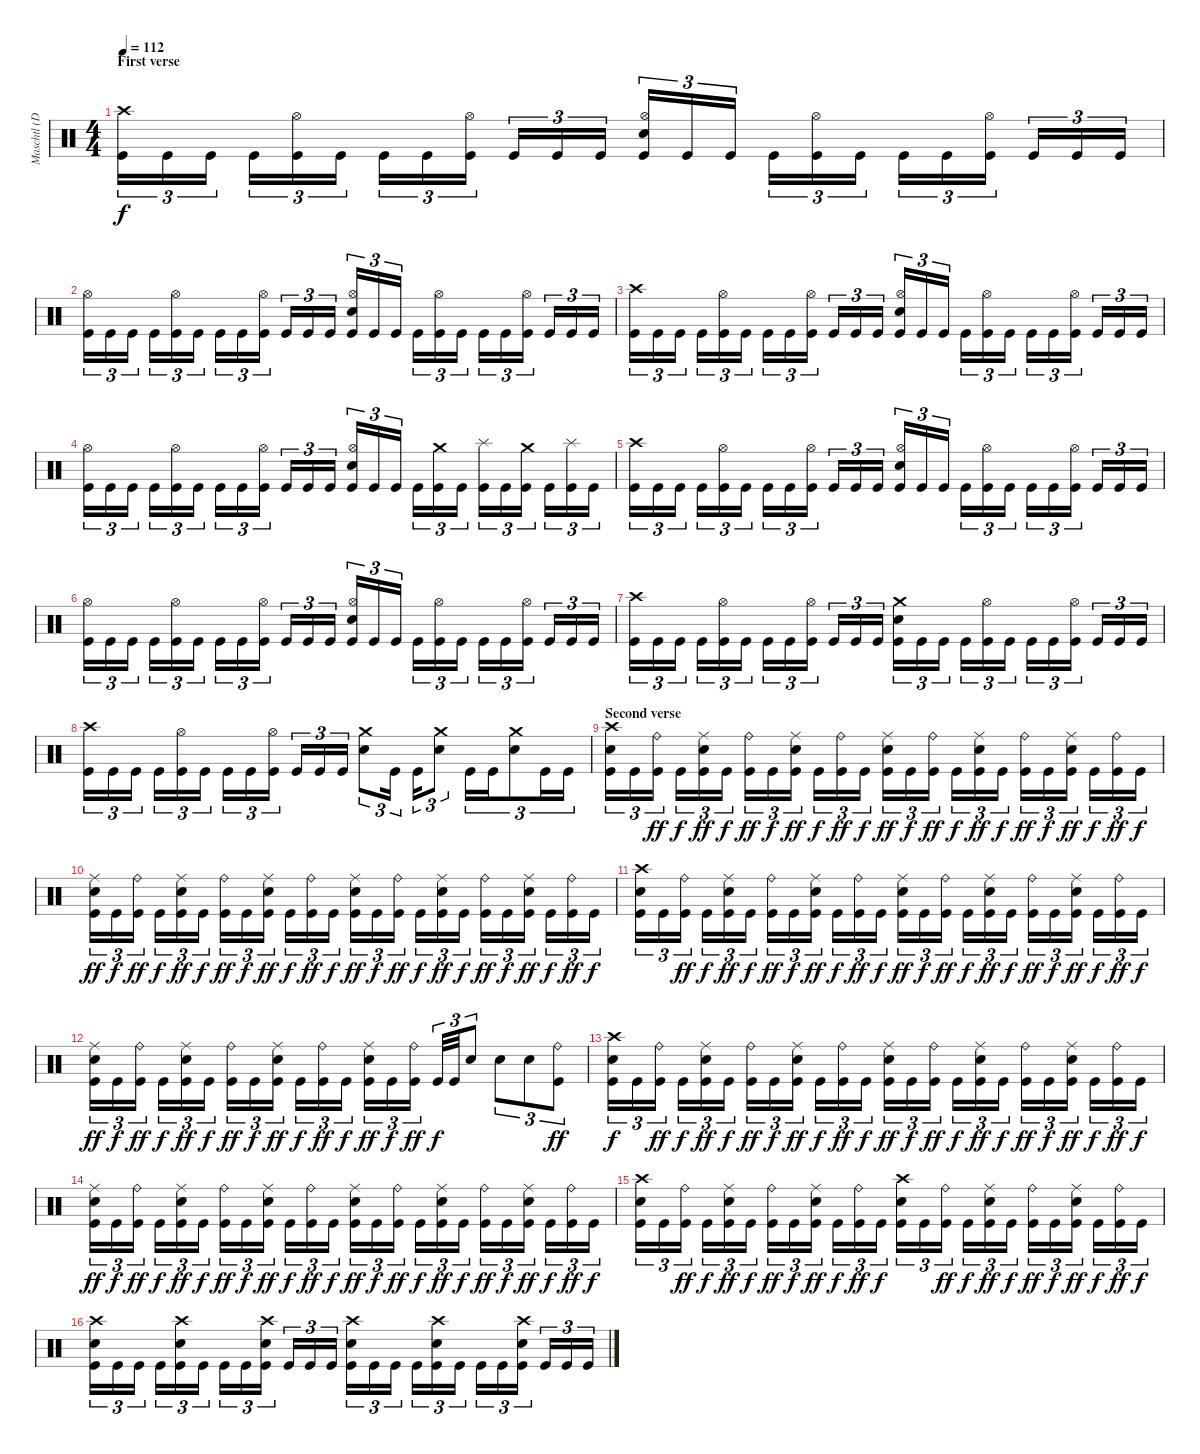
\track ("Maschtl (Drums)" "Maschtl (D") {instrument percussion}
\staff {score}
\articulation defaults
\ts (4 4)
\section ("" "First verse")
\tempo 112
\clef neutral
\ks c
("Crash high (hit)" "Kick (hit)").16{tu (3 2) dy f} "Kick (hit)".16{tu (3 2)} "Kick (hit)".16{tu (3 2)} "Kick (hit)".16{tu (3 2)} ("Hi-Hat (open)" "Kick (hit)").16{tu (3 2)} "Kick (hit)".16{tu (3 2)} "Kick (hit)".16{tu (3 2)} "Kick (hit)".16{tu (3 2)} ("Hi-Hat (open)" "Kick (hit)").16{tu (3 2)} "Kick (hit)".16{tu (3 2)} "Kick (hit)".16{tu (3 2)} "Kick (hit)".16{tu (3 2)} ("Hi-Hat (open)" "Electric Snare (hit)" "Kick (hit)").16{tu (3 2)} "Kick (hit)".16{tu (3 2)} "Kick (hit)".16{tu (3 2)} "Kick (hit)".16{tu (3 2)} ("Hi-Hat (open)" "Kick (hit)").16{tu (3 2)} "Kick (hit)".16{tu (3 2)} "Kick (hit)".16{tu (3 2)} "Kick (hit)".16{tu (3 2)} ("Hi-Hat (open)" "Kick (hit)").16{tu (3 2)} "Kick (hit)".16{tu (3 2)} "Kick (hit)".16{tu (3 2)} "Kick (hit)".16{tu (3 2)} |
("Hi-Hat (open)" "Kick (hit)").16{tu (3 2)} "Kick (hit)".16{tu (3 2)} "Kick (hit)".16{tu (3 2)} "Kick (hit)".16{tu (3 2)} ("Hi-Hat (open)" "Kick (hit)").16{tu (3 2)} "Kick (hit)".16{tu (3 2)} "Kick (hit)".16{tu (3 2)} "Kick (hit)".16{tu (3 2)} ("Hi-Hat (open)" "Kick (hit)").16{tu (3 2)} "Kick (hit)".16{tu (3 2)} "Kick (hit)".16{tu (3 2)} "Kick (hit)".16{tu (3 2)} ("Hi-Hat (open)" "Electric Snare (hit)" "Kick (hit)").16{tu (3 2)} "Kick (hit)".16{tu (3 2)} "Kick (hit)".16{tu (3 2)} "Kick (hit)".16{tu (3 2)} ("Hi-Hat (open)" "Kick (hit)").16{tu (3 2)} "Kick (hit)".16{tu (3 2)} "Kick (hit)".16{tu (3 2)} "Kick (hit)".16{tu (3 2)} ("Hi-Hat (open)" "Kick (hit)").16{tu (3 2)} "Kick (hit)".16{tu (3 2)} "Kick (hit)".16{tu (3 2)} "Kick (hit)".16{tu (3 2)} |
("Crash high (hit)" "Kick (hit)").16{tu (3 2)} "Kick (hit)".16{tu (3 2)} "Kick (hit)".16{tu (3 2)} "Kick (hit)".16{tu (3 2)} ("Hi-Hat (open)" "Kick (hit)").16{tu (3 2)} "Kick (hit)".16{tu (3 2)} "Kick (hit)".16{tu (3 2)} "Kick (hit)".16{tu (3 2)} ("Hi-Hat (open)" "Kick (hit)").16{tu (3 2)} "Kick (hit)".16{tu (3 2)} "Kick (hit)".16{tu (3 2)} "Kick (hit)".16{tu (3 2)} ("Hi-Hat (open)" "Electric Snare (hit)" "Kick (hit)").16{tu (3 2)} "Kick (hit)".16{tu (3 2)} "Kick (hit)".16{tu (3 2)} "Kick (hit)".16{tu (3 2)} ("Hi-Hat (open)" "Kick (hit)").16{tu (3 2)} "Kick (hit)".16{tu (3 2)} "Kick (hit)".16{tu (3 2)} "Kick (hit)".16{tu (3 2)} ("Hi-Hat (open)" "Kick (hit)").16{tu (3 2)} "Kick (hit)".16{tu (3 2)} "Kick (hit)".16{tu (3 2)} "Kick (hit)".16{tu (3 2)} |
("Hi-Hat (open)" "Kick (hit)").16{tu (3 2)} "Kick (hit)".16{tu (3 2)} "Kick (hit)".16{tu (3 2)} "Kick (hit)".16{tu (3 2)} ("Hi-Hat (open)" "Kick (hit)").16{tu (3 2)} "Kick (hit)".16{tu (3 2)} "Kick (hit)".16{tu (3 2)} "Kick (hit)".16{tu (3 2)} ("Hi-Hat (open)" "Kick (hit)").16{tu (3 2)} "Kick (hit)".16{tu (3 2)} "Kick (hit)".16{tu (3 2)} "Kick (hit)".16{tu (3 2)} ("Hi-Hat (open)" "Electric Snare (hit)" "Kick (hit)").16{tu (3 2)} "Kick (hit)".16{tu (3 2)} "Kick (hit)".16{tu (3 2)} "Kick (hit)".16{tu (3 2)} ("Crash medium (hit)" "Kick (hit)").16{tu (3 2)} "Kick (hit)".16{tu (3 2)} ("Splash (hit)" "Kick (hit)").16{tu (3 2)} "Kick (hit)".16{tu (3 2)} ("Crash medium (hit)" "Kick (hit)").16{tu (3 2)} "Kick (hit)".16{tu (3 2)} ("Splash (hit)" "Kick (hit)").16{tu (3 2)} "Kick (hit)".16{tu (3 2)} |
("Crash high (hit)" "Kick (hit)").16{tu (3 2)} "Kick (hit)".16{tu (3 2)} "Kick (hit)".16{tu (3 2)} "Kick (hit)".16{tu (3 2)} ("Hi-Hat (open)" "Kick (hit)").16{tu (3 2)} "Kick (hit)".16{tu (3 2)} "Kick (hit)".16{tu (3 2)} "Kick (hit)".16{tu (3 2)} ("Hi-Hat (open)" "Kick (hit)").16{tu (3 2)} "Kick (hit)".16{tu (3 2)} "Kick (hit)".16{tu (3 2)} "Kick (hit)".16{tu (3 2)} ("Hi-Hat (open)" "Electric Snare (hit)" "Kick (hit)").16{tu (3 2)} "Kick (hit)".16{tu (3 2)} "Kick (hit)".16{tu (3 2)} "Kick (hit)".16{tu (3 2)} ("Hi-Hat (open)" "Kick (hit)").16{tu (3 2)} "Kick (hit)".16{tu (3 2)} "Kick (hit)".16{tu (3 2)} "Kick (hit)".16{tu (3 2)} ("Hi-Hat (open)" "Kick (hit)").16{tu (3 2)} "Kick (hit)".16{tu (3 2)} "Kick (hit)".16{tu (3 2)} "Kick (hit)".16{tu (3 2)} |
("Hi-Hat (open)" "Kick (hit)").16{tu (3 2)} "Kick (hit)".16{tu (3 2)} "Kick (hit)".16{tu (3 2)} "Kick (hit)".16{tu (3 2)} ("Hi-Hat (open)" "Kick (hit)").16{tu (3 2)} "Kick (hit)".16{tu (3 2)} "Kick (hit)".16{tu (3 2)} "Kick (hit)".16{tu (3 2)} ("Hi-Hat (open)" "Kick (hit)").16{tu (3 2)} "Kick (hit)".16{tu (3 2)} "Kick (hit)".16{tu (3 2)} "Kick (hit)".16{tu (3 2)} ("Hi-Hat (open)" "Electric Snare (hit)" "Kick (hit)").16{tu (3 2)} "Kick (hit)".16{tu (3 2)} "Kick (hit)".16{tu (3 2)} "Kick (hit)".16{tu (3 2)} ("Hi-Hat (open)" "Kick (hit)").16{tu (3 2)} "Kick (hit)".16{tu (3 2)} "Kick (hit)".16{tu (3 2)} "Kick (hit)".16{tu (3 2)} ("Hi-Hat (open)" "Kick (hit)").16{tu (3 2)} "Kick (hit)".16{tu (3 2)} "Kick (hit)".16{tu (3 2)} "Kick (hit)".16{tu (3 2)} |
("Crash high (hit)" "Kick (hit)").16{tu (3 2)} "Kick (hit)".16{tu (3 2)} "Kick (hit)".16{tu (3 2)} "Kick (hit)".16{tu (3 2)} ("Hi-Hat (open)" "Kick (hit)").16{tu (3 2)} "Kick (hit)".16{tu (3 2)} "Kick (hit)".16{tu (3 2)} "Kick (hit)".16{tu (3 2)} ("Hi-Hat (open)" "Kick (hit)").16{tu (3 2)} "Kick (hit)".16{tu (3 2)} "Kick (hit)".16{tu (3 2)} "Kick (hit)".16{tu (3 2)} ("Crash medium (hit)" "Electric Snare (hit)" "Kick (hit)").16{tu (3 2)} "Kick (hit)".16{tu (3 2)} "Kick (hit)".16{tu (3 2)} "Kick (hit)".16{tu (3 2)} ("Hi-Hat (open)" "Kick (hit)").16{tu (3 2)} "Kick (hit)".16{tu (3 2)} "Kick (hit)".16{tu (3 2)} "Kick (hit)".16{tu (3 2)} ("Hi-Hat (open)" "Kick (hit)").16{tu (3 2)} "Kick (hit)".16{tu (3 2)} "Kick (hit)".16{tu (3 2)} "Kick (hit)".16{tu (3 2)} |
("Crash high (hit)" "Kick (hit)").16{tu (3 2)} "Kick (hit)".16{tu (3 2)} "Kick (hit)".16{tu (3 2)} "Kick (hit)".16{tu (3 2)} ("Hi-Hat (open)" "Kick (hit)").16{tu (3 2)} "Kick (hit)".16{tu (3 2)} "Kick (hit)".16{tu (3 2)} "Kick (hit)".16{tu (3 2)} ("Hi-Hat (open)" "Kick (hit)").16{tu (3 2)} "Kick (hit)".16{tu (3 2)} "Kick (hit)".16{tu (3 2)} "Kick (hit)".16{tu (3 2)} ("Crash medium (hit)" "Electric Snare (hit)").8{tu (3 2)} "Kick (hit)".16{tu (3 2)} "Kick (hit)".16{tu (3 2)} ("Crash medium (hit)" "Electric Snare (hit)").8{tu (3 2)} "Kick (hit)".16{tu (3 2)} "Kick (hit)".16{tu (3 2)} ("Crash medium (hit)" "Electric Snare (hit)").8{tu (3 2)} "Kick (hit)".16{tu (3 2)} "Kick (hit)".16{tu (3 2)} |
\section ("" "Second verse")
("Crash high (hit)" "Electric Snare (hit)" "Kick (hit)").16{tu (3 2)} "Kick (hit)".16{tu (3 2)} ("Ride (bell)" "Kick (hit)").16{tu (3 2) dy ff} "Kick (hit)".16{tu (3 2) dy f} ("Ride (middle)" "Electric Snare (hit)" "Kick (hit)").16{tu (3 2) dy ff} "Kick (hit)".16{tu (3 2) dy f} ("Ride (bell)" "Kick (hit)").16{tu (3 2) dy ff} "Kick (hit)".16{tu (3 2) dy f} ("Ride (middle)" "Electric Snare (hit)" "Kick (hit)").16{tu (3 2) dy ff} "Kick (hit)".16{tu (3 2) dy f} ("Ride (bell)" "Kick (hit)").16{tu (3 2) dy ff} "Kick (hit)".16{tu (3 2) dy f} ("Ride (middle)" "Electric Snare (hit)" "Kick (hit)").16{tu (3 2) dy ff} "Kick (hit)".16{tu (3 2) dy f} ("Ride (bell)" "Kick (hit)").16{tu (3 2) dy ff} "Kick (hit)".16{tu (3 2) dy f} ("Ride (middle)" "Electric Snare (hit)" "Kick (hit)").16{tu (3 2) dy ff} "Kick (hit)".16{tu (3 2) dy f} ("Ride (bell)" "Kick (hit)").16{tu (3 2) dy ff} "Kick (hit)".16{tu (3 2) dy f} ("Ride (middle)" "Electric Snare (hit)" "Kick (hit)").16{tu (3 2) dy ff} "Kick (hit)".16{tu (3 2) dy f} ("Ride (bell)" "Kick (hit)").16{tu (3 2) dy ff} "Kick (hit)".16{tu (3 2) dy f} |
("Ride (middle)" "Electric Snare (hit)" "Kick (hit)").16{tu (3 2) dy ff} "Kick (hit)".16{tu (3 2) dy f} ("Ride (bell)" "Kick (hit)").16{tu (3 2) dy ff} "Kick (hit)".16{tu (3 2) dy f} ("Ride (middle)" "Electric Snare (hit)" "Kick (hit)").16{tu (3 2) dy ff} "Kick (hit)".16{tu (3 2) dy f} ("Ride (bell)" "Kick (hit)").16{tu (3 2) dy ff} "Kick (hit)".16{tu (3 2) dy f} ("Ride (middle)" "Electric Snare (hit)" "Kick (hit)").16{tu (3 2) dy ff} "Kick (hit)".16{tu (3 2) dy f} ("Ride (bell)" "Kick (hit)").16{tu (3 2) dy ff} "Kick (hit)".16{tu (3 2) dy f} ("Ride (middle)" "Electric Snare (hit)" "Kick (hit)").16{tu (3 2) dy ff} "Kick (hit)".16{tu (3 2) dy f} ("Ride (bell)" "Kick (hit)").16{tu (3 2) dy ff} "Kick (hit)".16{tu (3 2) dy f} ("Ride (middle)" "Electric Snare (hit)" "Kick (hit)").16{tu (3 2) dy ff} "Kick (hit)".16{tu (3 2) dy f} ("Ride (bell)" "Kick (hit)").16{tu (3 2) dy ff} "Kick (hit)".16{tu (3 2) dy f} ("Ride (middle)" "Electric Snare (hit)" "Kick (hit)").16{tu (3 2) dy ff} "Kick (hit)".16{tu (3 2) dy f} ("Ride (bell)" "Kick (hit)").16{tu (3 2) dy ff} "Kick (hit)".16{tu (3 2) dy f} |
("Crash high (hit)" "Electric Snare (hit)" "Kick (hit)").16{tu (3 2)} "Kick (hit)".16{tu (3 2)} ("Ride (bell)" "Kick (hit)").16{tu (3 2) dy ff} "Kick (hit)".16{tu (3 2) dy f} ("Ride (middle)" "Electric Snare (hit)" "Kick (hit)").16{tu (3 2) dy ff} "Kick (hit)".16{tu (3 2) dy f} ("Ride (bell)" "Kick (hit)").16{tu (3 2) dy ff} "Kick (hit)".16{tu (3 2) dy f} ("Ride (middle)" "Electric Snare (hit)" "Kick (hit)").16{tu (3 2) dy ff} "Kick (hit)".16{tu (3 2) dy f} ("Ride (bell)" "Kick (hit)").16{tu (3 2) dy ff} "Kick (hit)".16{tu (3 2) dy f} ("Ride (middle)" "Electric Snare (hit)" "Kick (hit)").16{tu (3 2) dy ff} "Kick (hit)".16{tu (3 2) dy f} ("Ride (bell)" "Kick (hit)").16{tu (3 2) dy ff} "Kick (hit)".16{tu (3 2) dy f} ("Ride (middle)" "Electric Snare (hit)" "Kick (hit)").16{tu (3 2) dy ff} "Kick (hit)".16{tu (3 2) dy f} ("Ride (bell)" "Kick (hit)").16{tu (3 2) dy ff} "Kick (hit)".16{tu (3 2) dy f} ("Ride (middle)" "Electric Snare (hit)" "Kick (hit)").16{tu (3 2) dy ff} "Kick (hit)".16{tu (3 2) dy f} ("Ride (bell)" "Kick (hit)").16{tu (3 2) dy ff} "Kick (hit)".16{tu (3 2) dy f} |
("Ride (middle)" "Electric Snare (hit)" "Kick (hit)").16{tu (3 2) dy ff} "Kick (hit)".16{tu (3 2) dy f} ("Ride (bell)" "Kick (hit)").16{tu (3 2) dy ff} "Kick (hit)".16{tu (3 2) dy f} ("Ride (middle)" "Electric Snare (hit)" "Kick (hit)").16{tu (3 2) dy ff} "Kick (hit)".16{tu (3 2) dy f} ("Ride (bell)" "Kick (hit)").16{tu (3 2) dy ff} "Kick (hit)".16{tu (3 2) dy f} ("Ride (middle)" "Electric Snare (hit)" "Kick (hit)").16{tu (3 2) dy ff} "Kick (hit)".16{tu (3 2) dy f} ("Ride (bell)" "Kick (hit)").16{tu (3 2) dy ff} "Kick (hit)".16{tu (3 2) dy f} ("Ride (middle)" "Electric Snare (hit)" "Kick (hit)").16{tu (3 2) dy ff} "Kick (hit)".16{tu (3 2) dy f} ("Ride (bell)" "Kick (hit)").16{tu (3 2) dy ff} "Kick (hit)".32{tu (3 2) dy f} "Kick (hit)".32{tu (3 2)} "Electric Snare (hit)".8{tu (3 2)} "Electric Snare (hit)".8{tu (3 2)} "Electric Snare (hit)".8{tu (3 2)} ("Ride (bell)" "Kick (hit)").8{tu (3 2) dy ff} |
("Crash high (hit)" "Electric Snare (hit)" "Kick (hit)").16{tu (3 2) dy f} "Kick (hit)".16{tu (3 2)} ("Ride (bell)" "Kick (hit)").16{tu (3 2) dy ff} "Kick (hit)".16{tu (3 2) dy f} ("Ride (middle)" "Electric Snare (hit)" "Kick (hit)").16{tu (3 2) dy ff} "Kick (hit)".16{tu (3 2) dy f} ("Ride (bell)" "Kick (hit)").16{tu (3 2) dy ff} "Kick (hit)".16{tu (3 2) dy f} ("Ride (middle)" "Electric Snare (hit)" "Kick (hit)").16{tu (3 2) dy ff} "Kick (hit)".16{tu (3 2) dy f} ("Ride (bell)" "Kick (hit)").16{tu (3 2) dy ff} "Kick (hit)".16{tu (3 2) dy f} ("Ride (middle)" "Electric Snare (hit)" "Kick (hit)").16{tu (3 2) dy ff} "Kick (hit)".16{tu (3 2) dy f} ("Ride (bell)" "Kick (hit)").16{tu (3 2) dy ff} "Kick (hit)".16{tu (3 2) dy f} ("Ride (middle)" "Electric Snare (hit)" "Kick (hit)").16{tu (3 2) dy ff} "Kick (hit)".16{tu (3 2) dy f} ("Ride (bell)" "Kick (hit)").16{tu (3 2) dy ff} "Kick (hit)".16{tu (3 2) dy f} ("Ride (middle)" "Electric Snare (hit)" "Kick (hit)").16{tu (3 2) dy ff} "Kick (hit)".16{tu (3 2) dy f} ("Ride (bell)" "Kick (hit)").16{tu (3 2) dy ff} "Kick (hit)".16{tu (3 2) dy f} |
("Ride (middle)" "Electric Snare (hit)" "Kick (hit)").16{tu (3 2) dy ff} "Kick (hit)".16{tu (3 2) dy f} ("Ride (bell)" "Kick (hit)").16{tu (3 2) dy ff} "Kick (hit)".16{tu (3 2) dy f} ("Ride (middle)" "Electric Snare (hit)" "Kick (hit)").16{tu (3 2) dy ff} "Kick (hit)".16{tu (3 2) dy f} ("Ride (bell)" "Kick (hit)").16{tu (3 2) dy ff} "Kick (hit)".16{tu (3 2) dy f} ("Ride (middle)" "Electric Snare (hit)" "Kick (hit)").16{tu (3 2) dy ff} "Kick (hit)".16{tu (3 2) dy f} ("Ride (bell)" "Kick (hit)").16{tu (3 2) dy ff} "Kick (hit)".16{tu (3 2) dy f} ("Ride (middle)" "Electric Snare (hit)" "Kick (hit)").16{tu (3 2) dy ff} "Kick (hit)".16{tu (3 2) dy f} ("Ride (bell)" "Kick (hit)").16{tu (3 2) dy ff} "Kick (hit)".16{tu (3 2) dy f} ("Ride (middle)" "Electric Snare (hit)" "Kick (hit)").16{tu (3 2) dy ff} "Kick (hit)".16{tu (3 2) dy f} ("Ride (bell)" "Kick (hit)").16{tu (3 2) dy ff} "Kick (hit)".16{tu (3 2) dy f} ("Ride (middle)" "Electric Snare (hit)" "Kick (hit)").16{tu (3 2) dy ff} "Kick (hit)".16{tu (3 2) dy f} ("Ride (bell)" "Kick (hit)").16{tu (3 2) dy ff} "Kick (hit)".16{tu (3 2) dy f} |
("Crash high (hit)" "Electric Snare (hit)" "Kick (hit)").16{tu (3 2)} "Kick (hit)".16{tu (3 2)} ("Ride (bell)" "Kick (hit)").16{tu (3 2) dy ff} "Kick (hit)".16{tu (3 2) dy f} ("Ride (middle)" "Electric Snare (hit)" "Kick (hit)").16{tu (3 2) dy ff} "Kick (hit)".16{tu (3 2) dy f} ("Ride (bell)" "Kick (hit)").16{tu (3 2) dy ff} "Kick (hit)".16{tu (3 2) dy f} ("Ride (middle)" "Electric Snare (hit)" "Kick (hit)").16{tu (3 2) dy ff} "Kick (hit)".16{tu (3 2) dy f} ("Ride (bell)" "Kick (hit)").16{tu (3 2) dy ff} "Kick (hit)".16{tu (3 2) dy f} ("Crash high (hit)" "Electric Snare (hit)" "Kick (hit)").16{tu (3 2)} "Kick (hit)".16{tu (3 2)} ("Ride (bell)" "Kick (hit)").16{tu (3 2) dy ff} "Kick (hit)".16{tu (3 2) dy f} ("Ride (middle)" "Electric Snare (hit)" "Kick (hit)").16{tu (3 2) dy ff} "Kick (hit)".16{tu (3 2) dy f} ("Ride (bell)" "Kick (hit)").16{tu (3 2) dy ff} "Kick (hit)".16{tu (3 2) dy f} ("Ride (middle)" "Electric Snare (hit)" "Kick (hit)").16{tu (3 2) dy ff} "Kick (hit)".16{tu (3 2) dy f} ("Ride (bell)" "Kick (hit)").16{tu (3 2) dy ff} "Kick (hit)".16{tu (3 2) dy f} |
("Crash high (hit)" "Electric Snare (hit)" "Kick (hit)").16{tu (3 2)} "Kick (hit)".16{tu (3 2)} "Kick (hit)".16{tu (3 2)} "Kick (hit)".16{tu (3 2)} ("Crash high (hit)" "Electric Snare (hit)" "Kick (hit)").16{tu (3 2)} "Kick (hit)".16{tu (3 2)} "Kick (hit)".16{tu (3 2)} "Kick (hit)".16{tu (3 2)} ("Crash high (hit)" "Electric Snare (hit)" "Kick (hit)").16{tu (3 2)} "Kick (hit)".16{tu (3 2)} "Kick (hit)".16{tu (3 2)} "Kick (hit)".16{tu (3 2)} ("Crash high (hit)" "Electric Snare (hit)" "Kick (hit)").16{tu (3 2)} "Kick (hit)".16{tu (3 2)} "Kick (hit)".16{tu (3 2)} "Kick (hit)".16{tu (3 2)} ("Crash high (hit)" "Electric Snare (hit)" "Kick (hit)").16{tu (3 2)} "Kick (hit)".16{tu (3 2)} "Kick (hit)".16{tu (3 2)} "Kick (hit)".16{tu (3 2)} ("Crash high (hit)" "Electric Snare (hit)" "Kick (hit)").16{tu (3 2)} "Kick (hit)".16{tu (3 2)} "Kick (hit)".16{tu (3 2)} "Kick (hit)".16{tu (3 2)}
